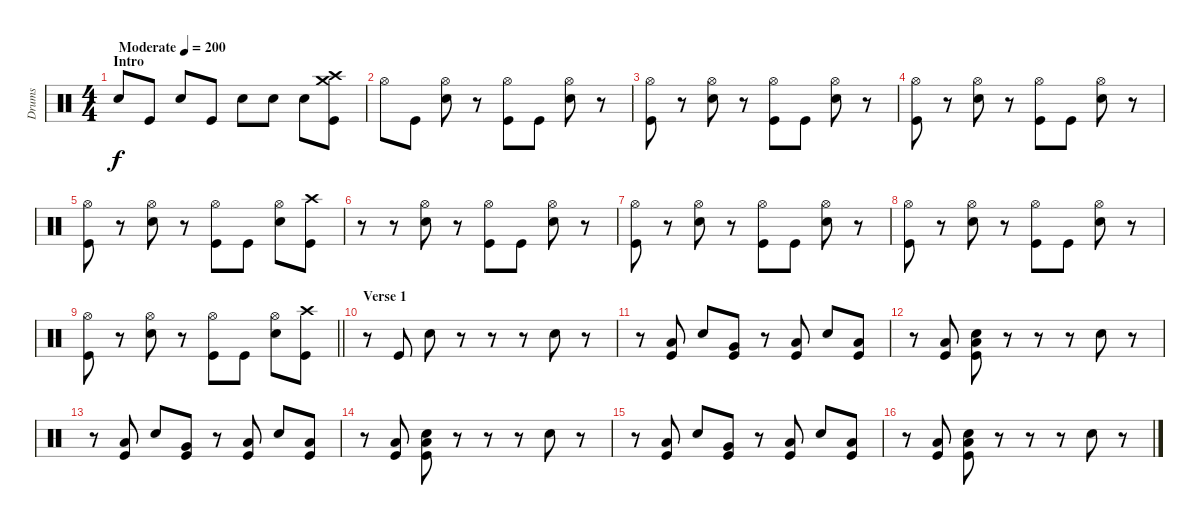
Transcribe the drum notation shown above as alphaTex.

\track ("Drums" "Drums") {instrument percussion}
\staff {score}
\articulation defaults
\ts (4 4)
\section ("" "Intro")
\tempo (200 "Moderate")
\clef neutral
\ks c "Electric Snare (hit)".8{dy f} "Kick (hit)".8 "Electric Snare (hit)".8 "Kick (hit)".8 "Electric Snare (hit)".8 "Electric Snare (hit)".8 "Electric Snare (hit)".8
("Crash high (hit)" "Crash medium (hit)" "Kick (hit)").8 |
"Hi-Hat (open)".8 "Kick (hit)".8 ("Hi-Hat (open)" "Electric Snare (hit)").8 r.8 ("Hi-Hat (open)" "Kick (hit)").8 "Kick (hit)".8 ("Hi-Hat (open)" "Electric Snare (hit)").8 r.8 |
("Hi-Hat (open)" "Kick (hit)").8 r.8 ("Hi-Hat (open)" "Electric Snare (hit)").8 r.8 ("Hi-Hat (open)" "Kick (hit)").8 "Kick (hit)".8 ("Hi-Hat (open)" "Electric Snare (hit)").8 r.8 |
("Hi-Hat (open)" "Kick (hit)").8 r.8 ("Hi-Hat (open)" "Electric Snare (hit)").8 r.8 ("Hi-Hat (open)" "Kick (hit)").8 "Kick (hit)".8 ("Hi-Hat (open)" "Electric Snare (hit)").8 r.8 |
("Hi-Hat (open)" "Kick (hit)").8 r.8 ("Hi-Hat (open)" "Electric Snare (hit)").8 r.8 ("Hi-Hat (open)" "Kick (hit)").8 "Kick (hit)".8 ("Hi-Hat (open)" "Electric Snare (hit)").8 ("Crash high (hit)" "Kick (hit)").8 |
r.8 r.8 ("Hi-Hat (open)" "Electric Snare (hit)").8 r.8 ("Hi-Hat (open)" "Kick (hit)").8 "Kick (hit)".8 ("Hi-Hat (open)" "Electric Snare (hit)").8 r.8 |
("Hi-Hat (open)" "Kick (hit)").8 r.8 ("Hi-Hat (open)" "Electric Snare (hit)").8 r.8 ("Hi-Hat (open)" "Kick (hit)").8 "Kick (hit)".8 ("Hi-Hat (open)" "Electric Snare (hit)").8 r.8 |
("Hi-Hat (open)" "Kick (hit)").8 r.8 ("Hi-Hat (open)" "Electric Snare (hit)").8 r.8 ("Hi-Hat (open)" "Kick (hit)").8 "Kick (hit)".8 ("Hi-Hat (open)" "Electric Snare (hit)").8 r.8 |
\barLineRight lightlight
("Hi-Hat (open)" "Kick (hit)").8 r.8 ("Hi-Hat (open)" "Electric Snare (hit)").8 r.8 ("Hi-Hat (open)" "Kick (hit)").8 "Kick (hit)".8 ("Hi-Hat (open)" "Electric Snare (hit)").8 ("Crash high (hit)" "Kick (hit)").8 |
\section ("" "Verse 1")
r.8 "Kick (hit)".8 "Electric Snare (hit)".8 r.8 r.8 r.8 "Electric Snare (hit)".8 r.8 |
r.8 ("Low Tom (hit)" "Kick (hit)").8 "Electric Snare (hit)".8 ("Very Low Tom (hit)" "Kick (hit)").8 r.8 ("Low Floor Tom (hit)" "Kick (hit)").8 "Electric Snare (hit)".8 ("Low Floor Tom (hit)" "Kick (hit)").8 |
r.8 ("Low Floor Tom (hit)" "Kick (hit)").8 ("Low Floor Tom (hit)" "Electric Snare (hit)" "Kick (hit)").8 r.8 r.8 r.8 "Electric Snare (hit)".8 r.8 |
r.8 ("Low Tom (hit)" "Kick (hit)").8 "Electric Snare (hit)".8 ("Very Low Tom (hit)" "Kick (hit)").8 r.8 ("Low Floor Tom (hit)" "Kick (hit)").8 "Electric Snare (hit)".8 ("Low Floor Tom (hit)" "Kick (hit)").8 |
r.8 ("Low Floor Tom (hit)" "Kick (hit)").8 ("Low Floor Tom (hit)" "Electric Snare (hit)" "Kick (hit)").8 r.8 r.8 r.8 "Electric Snare (hit)".8 r.8 |
r.8 ("Low Tom (hit)" "Kick (hit)").8 "Electric Snare (hit)".8 ("Very Low Tom (hit)" "Kick (hit)").8 r.8 ("Low Floor Tom (hit)" "Kick (hit)").8 "Electric Snare (hit)".8 ("Low Floor Tom (hit)" "Kick (hit)").8 |
r.8 ("Low Floor Tom (hit)" "Kick (hit)").8 ("Low Floor Tom (hit)" "Electric Snare (hit)" "Kick (hit)").8 r.8 r.8 r.8 "Electric Snare (hit)".8 r.8
